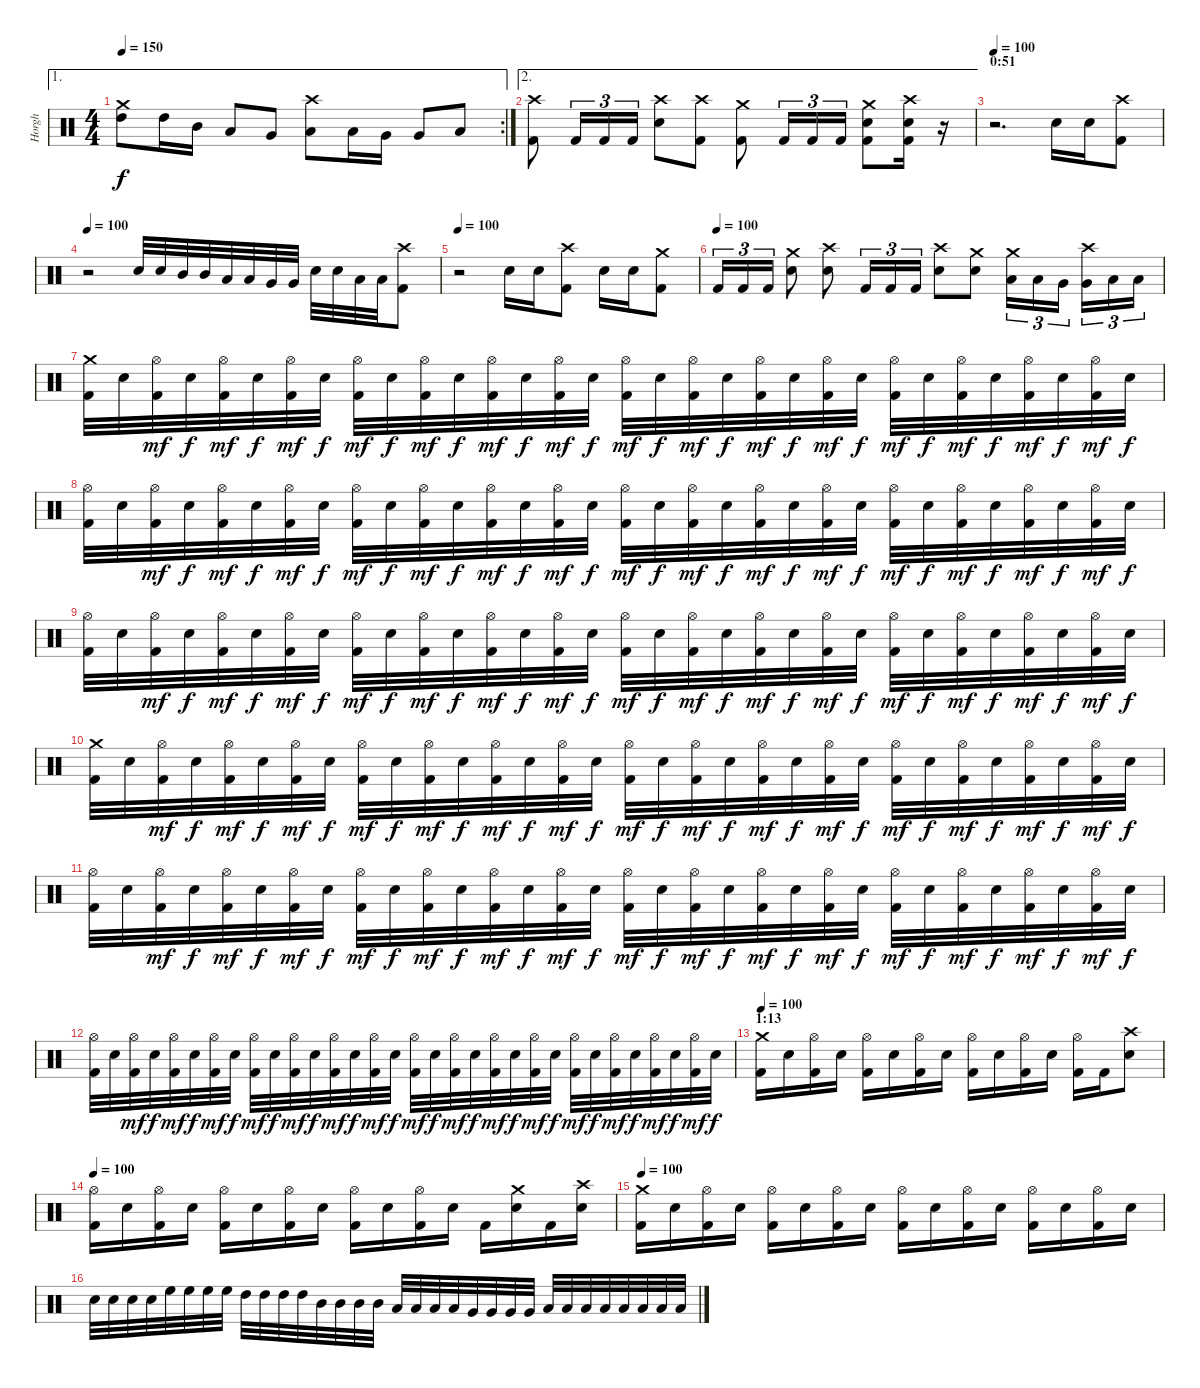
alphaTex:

\track ("Horgh" "Horgh") {instrument percussion}
\staff {score}
\articulation defaults
\ae 1
\rc 2
\ts (4 4)
\tempo 150
\clef neutral
\ks c
("Crash medium (hit)" "High Tom (hit)").8{dy f} "High Tom (hit)".16 "Mid Tom (hit)".16 "Low Tom (hit)".8 "Very Low Tom (hit)".8 ("Crash high (hit)" "Low Tom (hit)").8 "Low Tom (hit)".16 "Very Low Tom (hit)".16 "Very Low Tom (hit)".8 "Low Floor Tom (hit)".8 |
\ae 2
("Crash high (hit)" "Kick (hit) 2").8 "Kick (hit) 2".16{tu (3 2)} "Kick (hit) 2".16{tu (3 2)} "Kick (hit) 2".16{tu (3 2)} ("Crash high (hit)" "Electric Snare (hit)").8 ("Crash high (hit)" "Kick (hit) 2").8 ("Crash medium (hit)" "Kick (hit) 2").8 "Kick (hit) 2".16{tu (3 2)} "Kick (hit) 2".16{tu (3 2)} "Kick (hit) 2".16{tu (3 2)} ("Crash medium (hit)" "Electric Snare (hit)" "Kick (hit) 2").8 ("Crash high (hit)" "Electric Snare (hit)" "Kick (hit) 2").16 r.16{volume 0} |
\section ("" "0:51")
\tempo 100
r.2{d} "Electric Snare (hit)".16{volume 16} "Electric Snare (hit)".16 ("Crash high (hit)" "Kick (hit) 2").8 |
\tempo 100
r.2 "Electric Snare (hit)".32 "Electric Snare (hit)".32 "Mid Tom (hit)".32 "Mid Tom (hit)".32 "Low Tom (hit)".32 "Low Tom (hit)".32 "Very Low Tom (hit)".32 "Very Low Tom (hit)".32 "Electric Snare (hit)".32 "Electric Snare (hit)".32 "Low Tom (hit)".32 "Low Tom (hit)".32 ("Crash high (hit)" "Kick (hit) 2").8 |
\tempo 100
r.2 "Electric Snare (hit)".16 "Electric Snare (hit)".16 ("Crash high (hit)" "Kick (hit) 2").8 "Electric Snare (hit)".16 "Electric Snare (hit)".16 ("Crash medium (hit)" "Kick (hit) 2").8 |
\tempo (100)
"Kick (hit) 2".16{tu (3 2)} "Kick (hit) 2".16{tu (3 2)} "Kick (hit) 2".16{tu (3 2)} ("Crash medium (hit)" "Electric Snare (hit)").8 ("Crash high (hit)" "Electric Snare (hit)").8 "Kick (hit) 2".16{tu (3 2)} "Kick (hit) 2".16{tu (3 2)} "Kick (hit) 2".16{tu (3 2)} ("Crash high (hit)" "Electric Snare (hit)").8 ("Crash medium (hit)" "Electric Snare (hit)").8 ("Crash medium (hit)" "Low Tom (hit)").16{tu (3 2)} "Low Tom (hit)".16{tu (3 2)} "Very Low Tom (hit)".16{tu (3 2)} ("Crash high (hit)" "Very Low Tom (hit)").16{tu (3 2)} "Low Floor Tom (hit)".16{tu (3 2)} "Low Floor Tom (hit)".16{tu (3 2)} |
("Crash medium (hit)" "Kick (hit) 2").32 "Electric Snare (hit)".32 ("Hi-Hat (open)" "Kick (hit) 2").32{dy mf} "Electric Snare (hit)".32{dy f} ("Hi-Hat (open)" "Kick (hit) 2").32{dy mf} "Electric Snare (hit)".32{dy f} ("Hi-Hat (open)" "Kick (hit) 2").32{dy mf} "Electric Snare (hit)".32{dy f} ("Hi-Hat (open)" "Kick (hit) 2").32{dy mf} "Electric Snare (hit)".32{dy f} ("Hi-Hat (open)" "Kick (hit) 2").32{dy mf} "Electric Snare (hit)".32{dy f} ("Hi-Hat (open)" "Kick (hit) 2").32{dy mf} "Electric Snare (hit)".32{dy f} ("Hi-Hat (open)" "Kick (hit) 2").32{dy mf} "Electric Snare (hit)".32{dy f} ("Hi-Hat (open)" "Kick (hit) 2").32{dy mf} "Electric Snare (hit)".32{dy f} ("Hi-Hat (open)" "Kick (hit) 2").32{dy mf} "Electric Snare (hit)".32{dy f} ("Hi-Hat (open)" "Kick (hit) 2").32{dy mf} "Electric Snare (hit)".32{dy f} ("Hi-Hat (open)" "Kick (hit) 2").32{dy mf} "Electric Snare (hit)".32{dy f} ("Hi-Hat (open)" "Kick (hit) 2").32{dy mf} "Electric Snare (hit)".32{dy f} ("Hi-Hat (open)" "Kick (hit) 2").32{dy mf} "Electric Snare (hit)".32{dy f} ("Hi-Hat (open)" "Kick (hit) 2").32{dy mf} "Electric Snare (hit)".32{dy f} ("Hi-Hat (open)" "Kick (hit) 2").32{dy mf} "Electric Snare (hit)".32{dy f} |
("Hi-Hat (open)" "Kick (hit) 2").32 "Electric Snare (hit)".32 ("Hi-Hat (open)" "Kick (hit) 2").32{dy mf} "Electric Snare (hit)".32{dy f} ("Hi-Hat (open)" "Kick (hit) 2").32{dy mf} "Electric Snare (hit)".32{dy f} ("Hi-Hat (open)" "Kick (hit) 2").32{dy mf} "Electric Snare (hit)".32{dy f} ("Hi-Hat (open)" "Kick (hit) 2").32{dy mf} "Electric Snare (hit)".32{dy f} ("Hi-Hat (open)" "Kick (hit) 2").32{dy mf} "Electric Snare (hit)".32{dy f} ("Hi-Hat (open)" "Kick (hit) 2").32{dy mf} "Electric Snare (hit)".32{dy f} ("Hi-Hat (open)" "Kick (hit) 2").32{dy mf} "Electric Snare (hit)".32{dy f} ("Hi-Hat (open)" "Kick (hit) 2").32{dy mf} "Electric Snare (hit)".32{dy f} ("Hi-Hat (open)" "Kick (hit) 2").32{dy mf} "Electric Snare (hit)".32{dy f} ("Hi-Hat (open)" "Kick (hit) 2").32{dy mf} "Electric Snare (hit)".32{dy f} ("Hi-Hat (open)" "Kick (hit) 2").32{dy mf} "Electric Snare (hit)".32{dy f} ("Hi-Hat (open)" "Kick (hit) 2").32{dy mf} "Electric Snare (hit)".32{dy f} ("Hi-Hat (open)" "Kick (hit) 2").32{dy mf} "Electric Snare (hit)".32{dy f} ("Hi-Hat (open)" "Kick (hit) 2").32{dy mf} "Electric Snare (hit)".32{dy f} ("Hi-Hat (open)" "Kick (hit) 2").32{dy mf} "Electric Snare (hit)".32{dy f} |
("Hi-Hat (open)" "Kick (hit) 2").32 "Electric Snare (hit)".32 ("Hi-Hat (open)" "Kick (hit) 2").32{dy mf} "Electric Snare (hit)".32{dy f} ("Hi-Hat (open)" "Kick (hit) 2").32{dy mf} "Electric Snare (hit)".32{dy f} ("Hi-Hat (open)" "Kick (hit) 2").32{dy mf} "Electric Snare (hit)".32{dy f} ("Hi-Hat (open)" "Kick (hit) 2").32{dy mf} "Electric Snare (hit)".32{dy f} ("Hi-Hat (open)" "Kick (hit) 2").32{dy mf} "Electric Snare (hit)".32{dy f} ("Hi-Hat (open)" "Kick (hit) 2").32{dy mf} "Electric Snare (hit)".32{dy f} ("Hi-Hat (open)" "Kick (hit) 2").32{dy mf} "Electric Snare (hit)".32{dy f} ("Hi-Hat (open)" "Kick (hit) 2").32{dy mf} "Electric Snare (hit)".32{dy f} ("Hi-Hat (open)" "Kick (hit) 2").32{dy mf} "Electric Snare (hit)".32{dy f} ("Hi-Hat (open)" "Kick (hit) 2").32{dy mf} "Electric Snare (hit)".32{dy f} ("Hi-Hat (open)" "Kick (hit) 2").32{dy mf} "Electric Snare (hit)".32{dy f} ("Hi-Hat (open)" "Kick (hit) 2").32{dy mf} "Electric Snare (hit)".32{dy f} ("Hi-Hat (open)" "Kick (hit) 2").32{dy mf} "Electric Snare (hit)".32{dy f} ("Hi-Hat (open)" "Kick (hit) 2").32{dy mf} "Electric Snare (hit)".32{dy f} ("Hi-Hat (open)" "Kick (hit) 2").32{dy mf} "Electric Snare (hit)".32{dy f} |
("Crash medium (hit)" "Kick (hit) 2").32 "Electric Snare (hit)".32 ("Hi-Hat (open)" "Kick (hit) 2").32{dy mf} "Electric Snare (hit)".32{dy f} ("Hi-Hat (open)" "Kick (hit) 2").32{dy mf} "Electric Snare (hit)".32{dy f} ("Hi-Hat (open)" "Kick (hit) 2").32{dy mf} "Electric Snare (hit)".32{dy f} ("Hi-Hat (open)" "Kick (hit) 2").32{dy mf} "Electric Snare (hit)".32{dy f} ("Hi-Hat (open)" "Kick (hit) 2").32{dy mf} "Electric Snare (hit)".32{dy f} ("Hi-Hat (open)" "Kick (hit) 2").32{dy mf} "Electric Snare (hit)".32{dy f} ("Hi-Hat (open)" "Kick (hit) 2").32{dy mf} "Electric Snare (hit)".32{dy f} ("Hi-Hat (open)" "Kick (hit) 2").32{dy mf} "Electric Snare (hit)".32{dy f} ("Hi-Hat (open)" "Kick (hit) 2").32{dy mf} "Electric Snare (hit)".32{dy f} ("Hi-Hat (open)" "Kick (hit) 2").32{dy mf} "Electric Snare (hit)".32{dy f} ("Hi-Hat (open)" "Kick (hit) 2").32{dy mf} "Electric Snare (hit)".32{dy f} ("Hi-Hat (open)" "Kick (hit) 2").32{dy mf} "Electric Snare (hit)".32{dy f} ("Hi-Hat (open)" "Kick (hit) 2").32{dy mf} "Electric Snare (hit)".32{dy f} ("Hi-Hat (open)" "Kick (hit) 2").32{dy mf} "Electric Snare (hit)".32{dy f} ("Hi-Hat (open)" "Kick (hit) 2").32{dy mf} "Electric Snare (hit)".32{dy f} |
("Hi-Hat (open)" "Kick (hit) 2").32 "Electric Snare (hit)".32 ("Hi-Hat (open)" "Kick (hit) 2").32{dy mf} "Electric Snare (hit)".32{dy f} ("Hi-Hat (open)" "Kick (hit) 2").32{dy mf} "Electric Snare (hit)".32{dy f} ("Hi-Hat (open)" "Kick (hit) 2").32{dy mf} "Electric Snare (hit)".32{dy f} ("Hi-Hat (open)" "Kick (hit) 2").32{dy mf} "Electric Snare (hit)".32{dy f} ("Hi-Hat (open)" "Kick (hit) 2").32{dy mf} "Electric Snare (hit)".32{dy f} ("Hi-Hat (open)" "Kick (hit) 2").32{dy mf} "Electric Snare (hit)".32{dy f} ("Hi-Hat (open)" "Kick (hit) 2").32{dy mf} "Electric Snare (hit)".32{dy f} ("Hi-Hat (open)" "Kick (hit) 2").32{dy mf} "Electric Snare (hit)".32{dy f} ("Hi-Hat (open)" "Kick (hit) 2").32{dy mf} "Electric Snare (hit)".32{dy f} ("Hi-Hat (open)" "Kick (hit) 2").32{dy mf} "Electric Snare (hit)".32{dy f} ("Hi-Hat (open)" "Kick (hit) 2").32{dy mf} "Electric Snare (hit)".32{dy f} ("Hi-Hat (open)" "Kick (hit) 2").32{dy mf} "Electric Snare (hit)".32{dy f} ("Hi-Hat (open)" "Kick (hit) 2").32{dy mf} "Electric Snare (hit)".32{dy f} ("Hi-Hat (open)" "Kick (hit) 2").32{dy mf} "Electric Snare (hit)".32{dy f} ("Hi-Hat (open)" "Kick (hit) 2").32{dy mf} "Electric Snare (hit)".32{dy f} |
("Hi-Hat (open)" "Kick (hit) 2").32 "Electric Snare (hit)".32 ("Hi-Hat (open)" "Kick (hit) 2").32{dy mf} "Electric Snare (hit)".32{dy f} ("Hi-Hat (open)" "Kick (hit) 2").32{dy mf} "Electric Snare (hit)".32{dy f} ("Hi-Hat (open)" "Kick (hit) 2").32{dy mf} "Electric Snare (hit)".32{dy f} ("Hi-Hat (open)" "Kick (hit) 2").32{dy mf} "Electric Snare (hit)".32{dy f} ("Hi-Hat (open)" "Kick (hit) 2").32{dy mf} "Electric Snare (hit)".32{dy f} ("Hi-Hat (open)" "Kick (hit) 2").32{dy mf} "Electric Snare (hit)".32{dy f} ("Hi-Hat (open)" "Kick (hit) 2").32{dy mf} "Electric Snare (hit)".32{dy f} ("Hi-Hat (open)" "Kick (hit) 2").32{dy mf} "Electric Snare (hit)".32{dy f} ("Hi-Hat (open)" "Kick (hit) 2").32{dy mf} "Electric Snare (hit)".32{dy f} ("Hi-Hat (open)" "Kick (hit) 2").32{dy mf} "Electric Snare (hit)".32{dy f} ("Hi-Hat (open)" "Kick (hit) 2").32{dy mf} "Electric Snare (hit)".32{dy f} ("Hi-Hat (open)" "Kick (hit) 2").32{dy mf} "Electric Snare (hit)".32{dy f} ("Hi-Hat (open)" "Kick (hit) 2").32{dy mf} "Electric Snare (hit)".32{dy f} ("Hi-Hat (open)" "Kick (hit) 2").32{dy mf} "Electric Snare (hit)".32{dy f} ("Hi-Hat (open)" "Kick (hit) 2").32{dy mf} "Electric Snare (hit)".32{dy f} |
\section ("" "1:13")
\tempo 100
("Crash medium (hit)" "Kick (hit) 2").16 "Electric Snare (hit)".16 ("Hi-Hat (open)" "Kick (hit) 2").16 "Electric Snare (hit)".16 ("Hi-Hat (open)" "Kick (hit) 2").16 "Electric Snare (hit)".16 ("Hi-Hat (open)" "Kick (hit) 2").16 "Electric Snare (hit)".16 ("Hi-Hat (open)" "Kick (hit) 2").16 "Electric Snare (hit)".16 ("Hi-Hat (open)" "Kick (hit) 2").16 "Electric Snare (hit)".16 ("Hi-Hat (open)" "Kick (hit) 2").16 "Kick (hit) 2".16 ("Crash high (hit)" "Electric Snare (hit)").8 |
\tempo 100
("Hi-Hat (open)" "Kick (hit) 2").16 "Electric Snare (hit)".16 ("Hi-Hat (open)" "Kick (hit) 2").16 "Electric Snare (hit)".16 ("Hi-Hat (open)" "Kick (hit) 2").16 "Electric Snare (hit)".16 ("Hi-Hat (open)" "Kick (hit) 2").16 "Electric Snare (hit)".16 ("Hi-Hat (open)" "Kick (hit) 2").16 "Electric Snare (hit)".16 ("Hi-Hat (open)" "Kick (hit) 2").16 "Electric Snare (hit)".16 "Kick (hit) 2".16 ("Crash medium (hit)" "Electric Snare (hit)").16 "Kick (hit) 2".16 ("Crash high (hit)" "Electric Snare (hit)").16 |
\tempo 100
("Crash medium (hit)" "Kick (hit) 2").16 "Electric Snare (hit)".16 ("Hi-Hat (open)" "Kick (hit) 2").16 "Electric Snare (hit)".16 ("Hi-Hat (open)" "Kick (hit) 2").16 "Electric Snare (hit)".16 ("Hi-Hat (open)" "Kick (hit) 2").16 "Electric Snare (hit)".16 ("Hi-Hat (open)" "Kick (hit) 2").16 "Electric Snare (hit)".16 ("Hi-Hat (open)" "Kick (hit) 2").16 "Electric Snare (hit)".16 ("Hi-Hat (open)" "Kick (hit) 2").16 "Electric Snare (hit)".16 ("Hi-Hat (open)" "Kick (hit) 2").16 "Electric Snare (hit)".16 |
"Electric Snare (hit)".32 "Electric Snare (hit)".32 "Electric Snare (hit)".32 "Electric Snare (hit)".32 "High Floor Tom (hit)".32 "High Floor Tom (hit)".32 "High Floor Tom (hit)".32 "High Floor Tom (hit)".32 "High Tom (hit)".32 "High Tom (hit)".32 "High Tom (hit)".32 "High Tom (hit)".32 "Mid Tom (hit)".32 "Mid Tom (hit)".32 "Mid Tom (hit)".32 "Mid Tom (hit)".32 "Low Tom (hit)".32 "Low Tom (hit)".32 "Low Tom (hit)".32 "Low Tom (hit)".32 "Very Low Tom (hit)".32 "Very Low Tom (hit)".32 "Very Low Tom (hit)".32 "Very Low Tom (hit)".32 "Low Floor Tom (hit)".32 "Low Floor Tom (hit)".32 "Low Floor Tom (hit)".32 "Low Floor Tom (hit)".32 "Low Floor Tom (hit)".32 "Low Floor Tom (hit)".32 "Low Floor Tom (hit)".32 "Low Floor Tom (hit)".32
